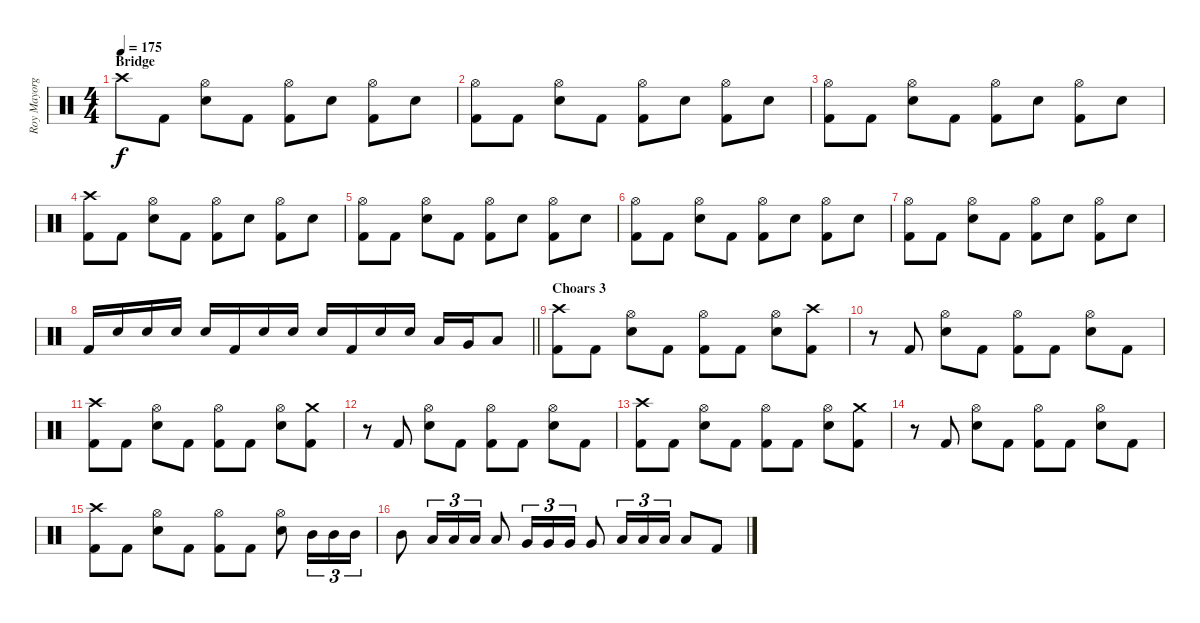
\track ("Roy Mayorga" "Roy Mayorg") {instrument percussion}
\staff {score}
\articulation defaults
\ts (4 4)
\section ("" "Bridge")
\tempo 175
\clef neutral
\ks c "Crash high (hit)".8{dy f} "Kick (hit) 2".8
("Hi-Hat (open)" "Electric Snare (hit)").8 "Kick (hit) 2".8 ("Hi-Hat (open)" "Kick (hit) 2").8 "Electric Snare (hit)".8 ("Hi-Hat (open)" "Kick (hit) 2").8 "Electric Snare (hit)".8 |
("Hi-Hat (open)" "Kick (hit) 2").8 "Kick (hit) 2".8 ("Hi-Hat (open)" "Electric Snare (hit)").8 "Kick (hit) 2".8 ("Hi-Hat (open)" "Kick (hit) 2").8 "Electric Snare (hit)".8 ("Hi-Hat (open)" "Kick (hit) 2").8 "Electric Snare (hit)".8 |
("Hi-Hat (open)" "Kick (hit) 2").8 "Kick (hit) 2".8 ("Hi-Hat (open)" "Electric Snare (hit)").8 "Kick (hit) 2".8 ("Hi-Hat (open)" "Kick (hit) 2").8 "Electric Snare (hit)".8 ("Hi-Hat (open)" "Kick (hit) 2").8 "Electric Snare (hit)".8 |
("Crash high (hit)" "Kick (hit) 2").8 "Kick (hit) 2".8 ("Hi-Hat (open)" "Electric Snare (hit)").8 "Kick (hit) 2".8 ("Hi-Hat (open)" "Kick (hit) 2").8 "Electric Snare (hit)".8 ("Hi-Hat (open)" "Kick (hit) 2").8 "Electric Snare (hit)".8 |
("Hi-Hat (open)" "Kick (hit) 2").8 "Kick (hit) 2".8 ("Hi-Hat (open)" "Electric Snare (hit)").8 "Kick (hit) 2".8 ("Hi-Hat (open)" "Kick (hit) 2").8 "Electric Snare (hit)".8 ("Hi-Hat (open)" "Kick (hit) 2").8 "Electric Snare (hit)".8 |
("Hi-Hat (open)" "Kick (hit) 2").8 "Kick (hit) 2".8 ("Hi-Hat (open)" "Electric Snare (hit)").8 "Kick (hit) 2".8 ("Hi-Hat (open)" "Kick (hit) 2").8 "Electric Snare (hit)".8 ("Hi-Hat (open)" "Kick (hit) 2").8 "Electric Snare (hit)".8 |
("Hi-Hat (open)" "Kick (hit) 2").8 "Kick (hit) 2".8 ("Hi-Hat (open)" "Electric Snare (hit)").8 "Kick (hit) 2".8 ("Hi-Hat (open)" "Kick (hit) 2").8 "Electric Snare (hit)".8 ("Hi-Hat (open)" "Kick (hit) 2").8 "Electric Snare (hit)".8 |
\barLineRight lightlight "Kick (hit) 2".16 "Electric Snare (hit)".16 "Electric Snare (hit)".16 "Electric Snare (hit)".16 "Electric Snare (hit)".16 "Kick (hit) 2".16 "Electric Snare (hit)".16 "Electric Snare (hit)".16 "Electric Snare (hit)".16 "Kick (hit) 2".16 "Electric Snare (hit)".16 "Electric Snare (hit)".16 "Low Tom (hit)".16 "Very Low Tom (hit)".16 "Low Floor Tom (hit)".8
|
\section ("" "Choars 3")
("Crash high (hit)" "Kick (hit) 2").8 "Kick (hit) 2".8 ("Hi-Hat (open)" "Electric Snare (hit)").8 "Kick (hit) 2".8 ("Hi-Hat (open)" "Kick (hit) 2").8 "Kick (hit) 2".8 ("Hi-Hat (open)" "Electric Snare (hit)").8 ("Crash high (hit)" "Kick (hit) 2").8 |
r.8 "Kick (hit) 2".8 ("Hi-Hat (open)" "Electric Snare (hit)").8 "Kick (hit) 2".8 ("Hi-Hat (open)" "Kick (hit) 2").8 "Kick (hit) 2".8 ("Hi-Hat (open)" "Electric Snare (hit)").8 "Kick (hit) 2".8 |
("Crash high (hit)" "Kick (hit) 2").8 "Kick (hit) 2".8 ("Hi-Hat (open)" "Electric Snare (hit)").8 "Kick (hit) 2".8 ("Hi-Hat (open)" "Kick (hit) 2").8 "Kick (hit) 2".8 ("Hi-Hat (open)" "Electric Snare (hit)").8 ("Crash medium (hit)" "Kick (hit) 2").8 |
r.8 "Kick (hit) 2".8 ("Hi-Hat (open)" "Electric Snare (hit)").8 "Kick (hit) 2".8 ("Hi-Hat (open)" "Kick (hit) 2").8 "Kick (hit) 2".8 ("Hi-Hat (open)" "Electric Snare (hit)").8 "Kick (hit) 2".8 |
("Crash high (hit)" "Kick (hit) 2").8 "Kick (hit) 2".8 ("Hi-Hat (open)" "Electric Snare (hit)").8 "Kick (hit) 2".8 ("Hi-Hat (open)" "Kick (hit) 2").8 "Kick (hit) 2".8 ("Hi-Hat (open)" "Electric Snare (hit)").8 ("Crash medium (hit)" "Kick (hit) 2").8 |
r.8 "Kick (hit) 2".8 ("Hi-Hat (open)" "Electric Snare (hit)").8 "Kick (hit) 2".8 ("Hi-Hat (open)" "Kick (hit) 2").8 "Kick (hit) 2".8 ("Hi-Hat (open)" "Electric Snare (hit)").8 "Kick (hit) 2".8 |
("Crash high (hit)" "Kick (hit) 2").8 "Kick (hit) 2".8 ("Hi-Hat (open)" "Electric Snare (hit)").8 "Kick (hit) 2".8 ("Hi-Hat (open)" "Kick (hit) 2").8 "Kick (hit) 2".8 ("Hi-Hat (open)" "Electric Snare (hit)").8 "Mid Tom (hit)".16{tu (3 2)} "Mid Tom (hit)".16{tu (3 2)} "Mid Tom (hit)".16{tu (3 2)} |
"Mid Tom (hit)".8 "Low Tom (hit)".16{tu (3 2)} "Low Tom (hit)".16{tu (3 2)} "Low Tom (hit)".16{tu (3 2)} "Low Tom (hit)".8 "Very Low Tom (hit)".16{tu (3 2)} "Very Low Tom (hit)".16{tu (3 2)} "Very Low Tom (hit)".16{tu (3 2)} "Very Low Tom (hit)".8 "Low Floor Tom (hit)".16{tu (3 2)} "Low Floor Tom (hit)".16{tu (3 2)} "Low Floor Tom (hit)".16{tu (3 2)} "Low Floor Tom (hit)".8 "Kick (hit) 2".8
